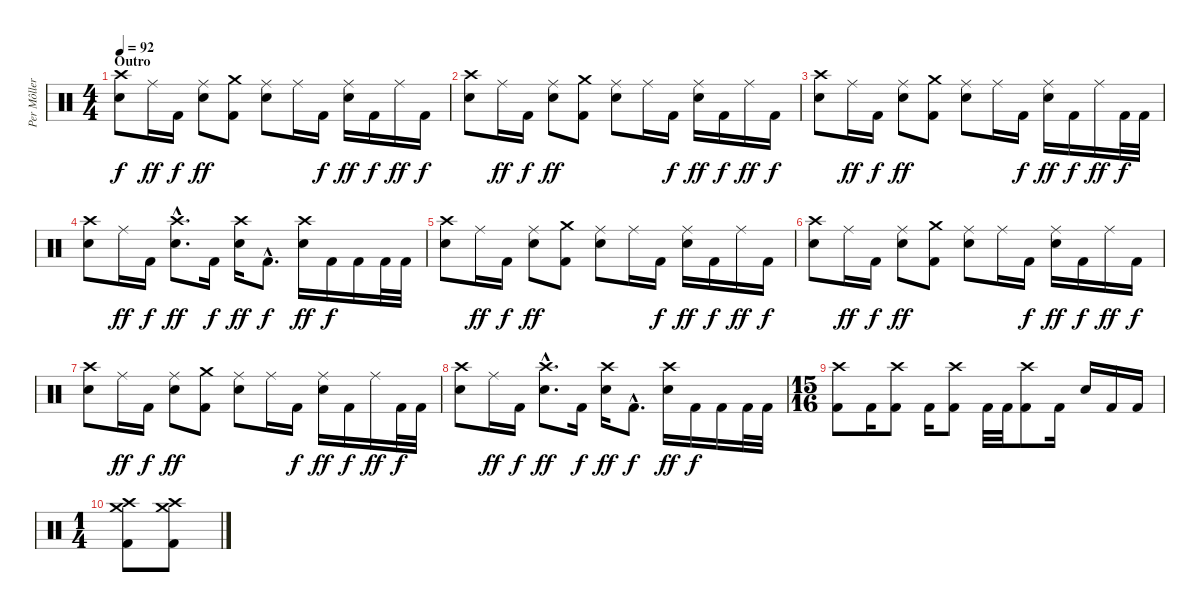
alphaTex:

\track ("Per Môller Jensen" "Per Môller") {instrument percussion}
\staff {score}
\articulation defaults
\ts (4 4)
\section ("" "Outro")
\tempo 92
\clef neutral
\ks c
("Electric Snare (hit)" "Crash high (hit)").8{dy f} "Ride (middle)".16{dy ff} "Kick (hit) 2".16{dy f} ("Electric Snare (hit)" "Ride (middle)").8{dy ff} ("Kick (hit) 2" "Crash medium (hit)").8 ("Electric Snare (hit)" "Ride (middle)").8 "Ride (middle)".16 "Kick (hit) 2".16{dy f} ("Electric Snare (hit)" "Ride (middle)").16{dy ff} "Kick (hit) 2".16{dy f} "Ride (middle)".16{dy ff} "Kick (hit) 2".16{dy f} |
("Electric Snare (hit)" "Crash high (hit)").8 "Ride (middle)".16{dy ff} "Kick (hit) 2".16{dy f} ("Electric Snare (hit)" "Ride (middle)").8{dy ff} ("Kick (hit) 2" "Crash medium (hit)").8 ("Electric Snare (hit)" "Ride (middle)").8 "Ride (middle)".16 "Kick (hit) 2".16{dy f} ("Electric Snare (hit)" "Ride (middle)").16{dy ff} "Kick (hit) 2".16{dy f} "Ride (middle)".16{dy ff} "Kick (hit) 2".16{dy f} |
("Electric Snare (hit)" "Crash high (hit)").8 "Ride (middle)".16{dy ff} "Kick (hit) 2".16{dy f} ("Electric Snare (hit)" "Ride (middle)").8{dy ff} ("Kick (hit) 2" "Crash medium (hit)").8 ("Electric Snare (hit)" "Ride (middle)").8 "Ride (middle)".16 "Kick (hit) 2".16{dy f} ("Electric Snare (hit)" "Ride (middle)").16{dy ff} "Kick (hit) 2".16{dy f} "Ride (middle)".16{dy ff} "Kick (hit) 2".32{dy f} "Kick (hit) 2".32 |
("Electric Snare (hit)" "Crash high (hit)").8 "Ride (middle)".16{dy ff} "Kick (hit) 2".16{dy f} ("Electric Snare (hit)"{hac} "Crash high (hit)"{hac}).8{d dy ff} "Kick (hit) 2".16{dy f} ("Electric Snare (hit)" "Crash high (hit)").16{dy ff} "Kick (hit) 2"{hac}.8{d dy f} ("Electric Snare (hit)" "Crash high (hit)").16{dy ff} "Kick (hit) 2".16{dy f} "Kick (hit) 2".16 "Kick (hit) 2".32 "Kick (hit) 2".32 |
("Electric Snare (hit)" "Crash high (hit)").8 "Ride (middle)".16{dy ff} "Kick (hit) 2".16{dy f} ("Electric Snare (hit)" "Ride (middle)").8{dy ff} ("Kick (hit) 2" "Crash medium (hit)").8 ("Electric Snare (hit)" "Ride (middle)").8 "Ride (middle)".16 "Kick (hit) 2".16{dy f} ("Electric Snare (hit)" "Ride (middle)").16{dy ff} "Kick (hit) 2".16{dy f} "Ride (middle)".16{dy ff} "Kick (hit) 2".16{dy f} |
("Electric Snare (hit)" "Crash high (hit)").8 "Ride (middle)".16{dy ff} "Kick (hit) 2".16{dy f} ("Electric Snare (hit)" "Ride (middle)").8{dy ff} ("Kick (hit) 2" "Crash medium (hit)").8 ("Electric Snare (hit)" "Ride (middle)").8 "Ride (middle)".16 "Kick (hit) 2".16{dy f} ("Electric Snare (hit)" "Ride (middle)").16{dy ff} "Kick (hit) 2".16{dy f} "Ride (middle)".16{dy ff} "Kick (hit) 2".16{dy f} |
("Electric Snare (hit)" "Crash high (hit)").8 "Ride (middle)".16{dy ff} "Kick (hit) 2".16{dy f} ("Electric Snare (hit)" "Ride (middle)").8{dy ff} ("Kick (hit) 2" "Crash medium (hit)").8 ("Electric Snare (hit)" "Ride (middle)").8 "Ride (middle)".16 "Kick (hit) 2".16{dy f} ("Electric Snare (hit)" "Ride (middle)").16{dy ff} "Kick (hit) 2".16{dy f} "Ride (middle)".16{dy ff} "Kick (hit) 2".32{dy f} "Kick (hit) 2".32 |
("Electric Snare (hit)" "Crash high (hit)").8 "Ride (middle)".16{dy ff} "Kick (hit) 2".16{dy f} ("Electric Snare (hit)"{hac} "Crash high (hit)"{hac}).8{d dy ff} "Kick (hit) 2".16{dy f} ("Electric Snare (hit)" "Crash high (hit)").16{dy ff} "Kick (hit) 2"{hac}.8{d dy f} ("Electric Snare (hit)" "Crash high (hit)").16{dy ff} "Kick (hit) 2".16{dy f} "Kick (hit) 2".16 "Kick (hit) 2".32 "Kick (hit) 2".32 |
\ts (15 16)
("Kick (hit) 2" "Crash high (hit)").8 "Kick (hit) 2".16 ("Kick (hit) 2" "Crash high (hit)").8 "Kick (hit) 2".16 ("Kick (hit) 2" "Crash high (hit)").8 "Kick (hit) 2".32 "Kick (hit) 2".32 ("Kick (hit) 2" "Crash high (hit)").8 "Kick (hit) 2".16 "Electric Snare (hit)".16 "Kick (hit) 2".16 "Kick (hit) 2".16 |
\ts (1 4)
("Kick (hit) 2" "Crash high (hit)" "Crash medium (hit)").8 ("Kick (hit) 2" "Crash high (hit)" "Crash medium (hit)").8
